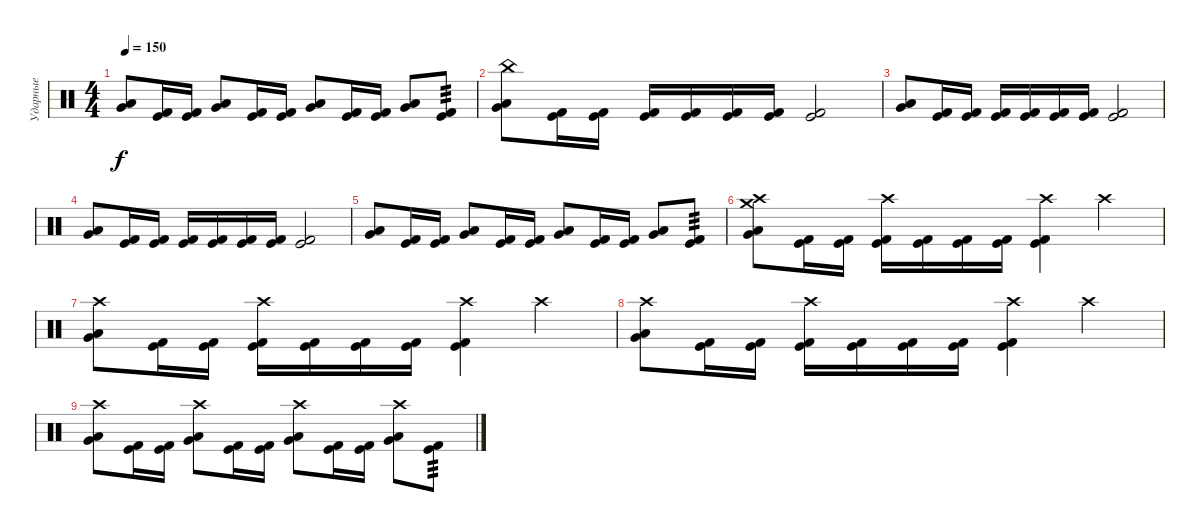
\track ("Ударные" "Ударные") {instrument percussion}
\staff {score}
\articulation defaults
\ts (4 4)
\tempo 150
\clef neutral
\ks c
("Very Low Tom (hit)" "Low Tom (hit)").8{dy f} ("Kick (hit) 2" "Kick (hit)").16 ("Kick (hit) 2" "Kick (hit)").16 ("Very Low Tom (hit)" "Low Tom (hit)").8 ("Kick (hit) 2" "Kick (hit)").16 ("Kick (hit) 2" "Kick (hit)").16 ("Very Low Tom (hit)" "Low Tom (hit)").8 ("Kick (hit) 2" "Kick (hit)").16 ("Kick (hit) 2" "Kick (hit)").16 ("Very Low Tom (hit)" "Low Tom (hit)").8 ("Kick (hit) 2" "Kick (hit)").8{tp 3} |
("Very Low Tom (hit)" "Low Tom (hit)" "China (hit)").8 ("Kick (hit) 2" "Kick (hit)").16 ("Kick (hit) 2" "Kick (hit)").16 ("Kick (hit) 2" "Kick (hit)").16 ("Kick (hit) 2" "Kick (hit)").16 ("Kick (hit) 2" "Kick (hit)").16 ("Kick (hit) 2" "Kick (hit)").16 ("Kick (hit) 2" "Kick (hit)").2 |
("Very Low Tom (hit)" "Low Tom (hit)").8 ("Kick (hit) 2" "Kick (hit)").16 ("Kick (hit) 2" "Kick (hit)").16 ("Kick (hit) 2" "Kick (hit)").16 ("Kick (hit) 2" "Kick (hit)").16 ("Kick (hit) 2" "Kick (hit)").16 ("Kick (hit) 2" "Kick (hit)").16 ("Kick (hit) 2" "Kick (hit)").2 |
("Very Low Tom (hit)" "Low Tom (hit)").8 ("Kick (hit) 2" "Kick (hit)").16 ("Kick (hit) 2" "Kick (hit)").16 ("Kick (hit) 2" "Kick (hit)").16 ("Kick (hit) 2" "Kick (hit)").16 ("Kick (hit) 2" "Kick (hit)").16 ("Kick (hit) 2" "Kick (hit)").16 ("Kick (hit) 2" "Kick (hit)").2 |
("Very Low Tom (hit)" "Low Tom (hit)").8 ("Kick (hit) 2" "Kick (hit)").16 ("Kick (hit) 2" "Kick (hit)").16 ("Very Low Tom (hit)" "Low Tom (hit)").8 ("Kick (hit) 2" "Kick (hit)").16 ("Kick (hit) 2" "Kick (hit)").16 ("Very Low Tom (hit)" "Low Tom (hit)").8 ("Kick (hit) 2" "Kick (hit)").16 ("Kick (hit) 2" "Kick (hit)").16 ("Very Low Tom (hit)" "Low Tom (hit)").8 ("Kick (hit) 2" "Kick (hit)").8{tp 3} |
("Very Low Tom (hit)" "Low Tom (hit)" "Crash medium (hit)" "Crash high (hit)").8 ("Kick (hit) 2" "Kick (hit)").16 ("Kick (hit) 2" "Kick (hit)").16 ("Kick (hit) 2" "Kick (hit)" "Crash high (hit)").16 ("Kick (hit) 2" "Kick (hit)").16 ("Kick (hit) 2" "Kick (hit)").16 ("Kick (hit) 2" "Kick (hit)").16 ("Kick (hit) 2" "Kick (hit)" "Crash high (hit)").4 "Crash high (hit)".4 |
("Very Low Tom (hit)" "Low Tom (hit)" "Crash high (hit)").8 ("Kick (hit) 2" "Kick (hit)").16 ("Kick (hit) 2" "Kick (hit)").16 ("Kick (hit) 2" "Kick (hit)" "Crash high (hit)").16 ("Kick (hit) 2" "Kick (hit)").16 ("Kick (hit) 2" "Kick (hit)").16 ("Kick (hit) 2" "Kick (hit)").16 ("Kick (hit) 2" "Kick (hit)" "Crash high (hit)").4 "Crash high (hit)".4 |
("Very Low Tom (hit)" "Low Tom (hit)" "Crash high (hit)").8 ("Kick (hit) 2" "Kick (hit)").16 ("Kick (hit) 2" "Kick (hit)").16 ("Kick (hit) 2" "Kick (hit)" "Crash high (hit)").16 ("Kick (hit) 2" "Kick (hit)").16 ("Kick (hit) 2" "Kick (hit)").16 ("Kick (hit) 2" "Kick (hit)").16 ("Kick (hit) 2" "Kick (hit)" "Crash high (hit)").4 "Crash high (hit)".4 |
("Very Low Tom (hit)" "Low Tom (hit)" "Crash high (hit)").8 ("Kick (hit) 2" "Kick (hit)").16 ("Kick (hit) 2" "Kick (hit)").16 ("Very Low Tom (hit)" "Low Tom (hit)" "Crash high (hit)").8 ("Kick (hit) 2" "Kick (hit)").16 ("Kick (hit) 2" "Kick (hit)").16 ("Very Low Tom (hit)" "Low Tom (hit)" "Crash high (hit)").8 ("Kick (hit) 2" "Kick (hit)").16 ("Kick (hit) 2" "Kick (hit)").16 ("Very Low Tom (hit)" "Low Tom (hit)" "Crash high (hit)").8 ("Kick (hit) 2" "Kick (hit)").8{tp 3}
